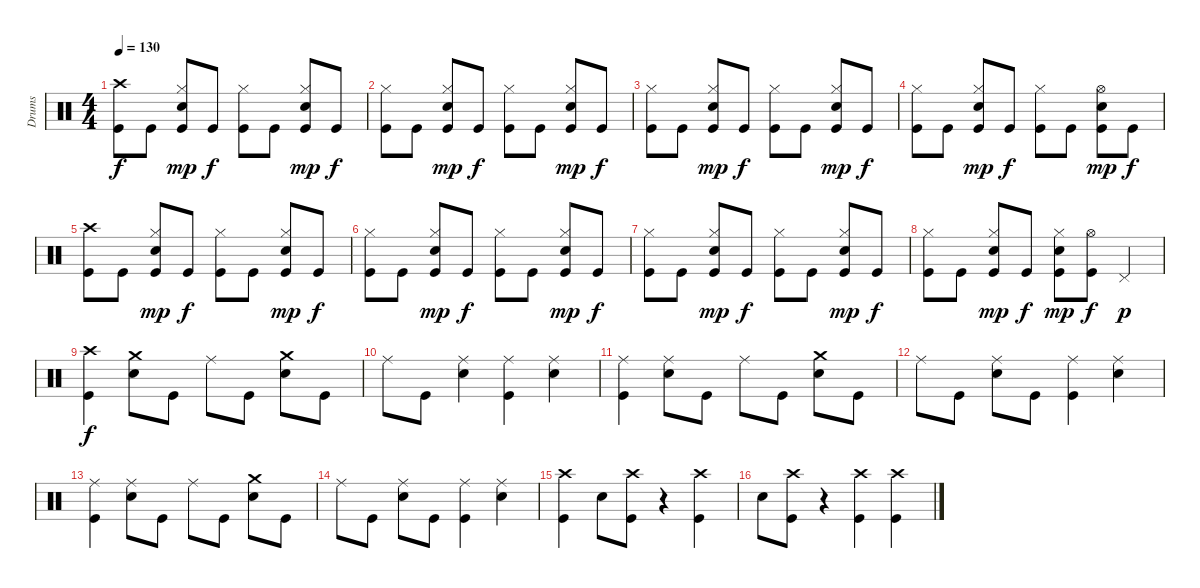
\track ("Drums" "Drums") {instrument percussion}
\staff {score}
\articulation defaults
\ts (4 4)
\tempo 130
\clef neutral
\ks c
("Crash high (hit)" "Kick (hit)").8{dy f} "Kick (hit)".8 ("Hi-Hat (closed)" "Snare (hit) 2" "Kick (hit)").8{dy mp} "Kick (hit)".8{dy f} ("Hi-Hat (closed)" "Kick (hit)").8 "Kick (hit)".8 ("Hi-Hat (closed)" "Snare (hit) 2" "Kick (hit)").8{dy mp} "Kick (hit)".8{dy f} |
("Hi-Hat (closed)" "Kick (hit)").8 "Kick (hit)".8 ("Hi-Hat (closed)" "Snare (hit) 2" "Kick (hit)").8{dy mp} "Kick (hit)".8{dy f} ("Hi-Hat (closed)" "Kick (hit)").8 "Kick (hit)".8 ("Hi-Hat (closed)" "Snare (hit) 2" "Kick (hit)").8{dy mp} "Kick (hit)".8{dy f} |
("Hi-Hat (closed)" "Kick (hit)").8 "Kick (hit)".8 ("Hi-Hat (closed)" "Snare (hit) 2" "Kick (hit)").8{dy mp} "Kick (hit)".8{dy f} ("Hi-Hat (closed)" "Kick (hit)").8 "Kick (hit)".8 ("Hi-Hat (closed)" "Snare (hit) 2" "Kick (hit)").8{dy mp} "Kick (hit)".8{dy f} |
("Hi-Hat (closed)" "Kick (hit)").8 "Kick (hit)".8 ("Hi-Hat (closed)" "Snare (hit) 2" "Kick (hit)").8{dy mp} "Kick (hit)".8{dy f} ("Hi-Hat (closed)" "Kick (hit)").8 "Kick (hit)".8 ("Hi-Hat (open)" "Snare (hit) 2" "Kick (hit)").8{dy mp} "Kick (hit)".8{dy f} |
("Crash high (hit)" "Kick (hit)").8 "Kick (hit)".8 ("Hi-Hat (closed)" "Snare (hit) 2" "Kick (hit)").8{dy mp} "Kick (hit)".8{dy f} ("Hi-Hat (closed)" "Kick (hit)").8 "Kick (hit)".8 ("Hi-Hat (closed)" "Snare (hit) 2" "Kick (hit)").8{dy mp} "Kick (hit)".8{dy f} |
("Hi-Hat (closed)" "Kick (hit)").8 "Kick (hit)".8 ("Hi-Hat (closed)" "Snare (hit) 2" "Kick (hit)").8{dy mp} "Kick (hit)".8{dy f} ("Hi-Hat (closed)" "Kick (hit)").8 "Kick (hit)".8 ("Hi-Hat (closed)" "Snare (hit) 2" "Kick (hit)").8{dy mp} "Kick (hit)".8{dy f} |
("Hi-Hat (closed)" "Kick (hit)").8 "Kick (hit)".8 ("Hi-Hat (closed)" "Snare (hit) 2" "Kick (hit)").8{dy mp} "Kick (hit)".8{dy f} ("Hi-Hat (closed)" "Kick (hit)").8 "Kick (hit)".8 ("Hi-Hat (closed)" "Snare (hit) 2" "Kick (hit)").8{dy mp} "Kick (hit)".8{dy f} |
("Hi-Hat (closed)" "Kick (hit)").8 "Kick (hit)".8 ("Hi-Hat (closed)" "Snare (hit) 2" "Kick (hit)").8{dy mp} "Kick (hit)".8{dy f} ("Hi-Hat (closed)" "Snare (hit) 2" "Kick (hit)").8{dy mp} ("Hi-Hat (open)" "Kick (hit)").8{dy f} "Pedal Hi-Hat (hit)".4{dy p} |
("Crash high (hit)" "Kick (hit)").4{dy f} ("Crash medium (hit)" "Snare (hit) 2").8 "Kick (hit)".8 "Ride (middle)".8 "Kick (hit)".8 ("Crash medium (hit)" "Snare (hit) 2").8 "Kick (hit)".8 |
"Ride (middle)".8 "Kick (hit)".8 ("Ride (middle)" "Snare (hit) 2").4 ("Ride (middle)" "Kick (hit)").4 ("Ride (middle)" "Snare (hit) 2").4 |
("Ride (middle)" "Kick (hit)").4 ("Ride (middle)" "Snare (hit) 2").8 "Kick (hit)".8 "Ride (middle)".8 "Kick (hit)".8 ("Crash medium (hit)" "Snare (hit) 2").8 "Kick (hit)".8 |
"Ride (middle)".8 "Kick (hit)".8 ("Ride (middle)" "Snare (hit) 2").8 "Kick (hit)".8 ("Ride (middle)" "Kick (hit)").4 ("Ride (middle)" "Snare (hit) 2").4 |
("Ride (middle)" "Kick (hit)").4 ("Ride (middle)" "Snare (hit) 2").8 "Kick (hit)".8 "Ride (middle)".8 "Kick (hit)".8 ("Crash medium (hit)" "Snare (hit) 2").8 "Kick (hit)".8 |
"Ride (middle)".8 "Kick (hit)".8 ("Ride (middle)" "Snare (hit) 2").8 "Kick (hit)".8 ("Ride (middle)" "Kick (hit)").4 ("Ride (middle)" "Snare (hit) 2").4 |
("Crash high (hit)" "Kick (hit)").4 "Snare (hit) 2".8 ("Crash high (hit)" "Kick (hit)").8 r.4 ("Crash high (hit)" "Kick (hit)").4 |
"Snare (hit) 2".8 ("Crash high (hit)" "Kick (hit)").8 r.4 ("Crash high (hit)" "Kick (hit)").4 ("Crash high (hit)" "Kick (hit)").4
